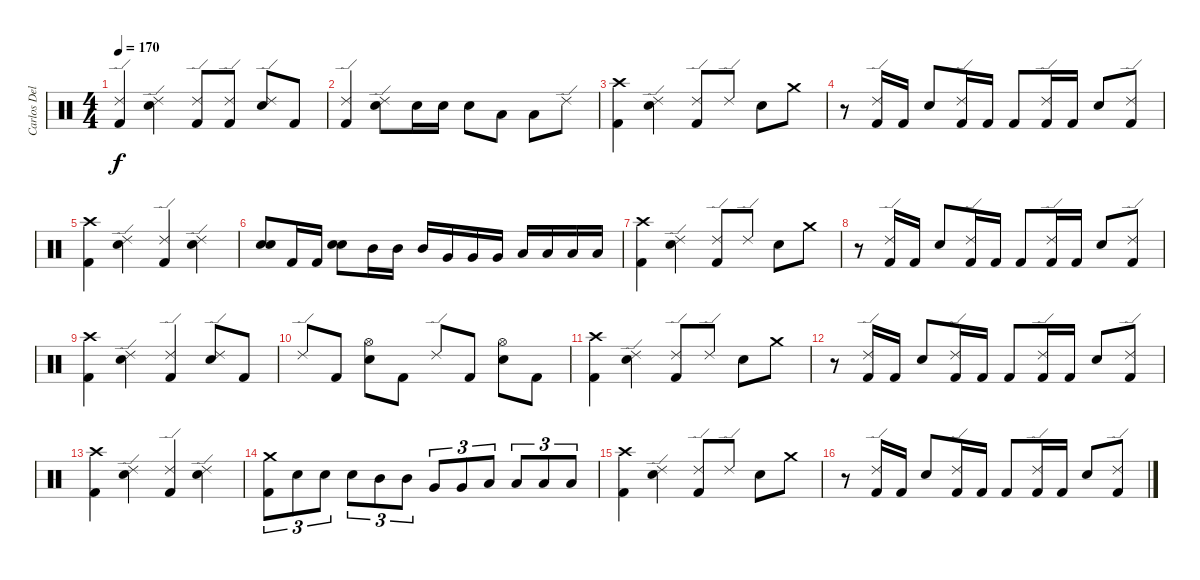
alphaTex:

\track ("Carlos Delgado" "Carlos Del") {instrument percussion}
\staff {score}
\articulation defaults
\ts (4 4)
\tempo 170
\clef neutral
\ks c
("Ride (edge) 2" "Kick (hit) 2").4{dy f} ("Ride (edge) 2" "Electric Snare (hit)").4 ("Ride (edge) 2" "Kick (hit) 2").8 ("Ride (edge) 2" "Kick (hit) 2").8 ("Ride (edge) 2" "Electric Snare (hit)").8 "Kick (hit) 2".8 |
("Ride (edge) 2" "Kick (hit) 2").4 ("Ride (edge) 2" "Electric Snare (hit)").8 "Electric Snare (hit)".16 "Electric Snare (hit)".16 "Electric Snare (hit)".8 "Low Tom (hit)".8 "Low Tom (hit)".8 "Ride (edge) 2".8 |
("Crash high (hit)" "Kick (hit) 2").4 ("Ride (edge) 2" "Electric Snare (hit)").4 ("Ride (edge) 2" "Kick (hit) 2").8 "Ride (edge) 2".8 "Electric Snare (hit)".8 "Crash medium (hit)".8 |
r.8 ("Ride (edge) 2" "Kick (hit) 2").16 "Kick (hit) 2".16 "Electric Snare (hit)".8 ("Ride (edge) 2" "Kick (hit) 2").16 "Kick (hit) 2".16 "Kick (hit) 2".8 ("Ride (edge) 2" "Kick (hit) 2").16 "Kick (hit) 2".16 "Electric Snare (hit)".8 ("Ride (edge) 2" "Kick (hit) 2").8 |
("Crash high (hit)" "Kick (hit) 2").4 ("Ride (edge) 2" "Electric Snare (hit)").4 ("Ride (edge) 2" "Kick (hit) 2").4 ("Ride (edge) 2" "Electric Snare (hit)").4 |
("Electric Snare (hit)" "Electric Snare (hit)").8{bd 240} "Kick (hit) 2".16 "Kick (hit) 2".16 ("Electric Snare (hit)" "Electric Snare (hit)").8{bd 240} "Mid Tom (hit)".16 "Mid Tom (hit)".16 "Mid Tom (hit)".16 "Very Low Tom (hit)".16 "Very Low Tom (hit)".16 "Very Low Tom (hit)".16 "Low Tom (hit)".16 "Low Tom (hit)".16 "Low Tom (hit)".16 "Low Floor Tom (hit)".16 |
("Crash high (hit)" "Kick (hit) 2").4 ("Ride (edge) 2" "Electric Snare (hit)").4 ("Ride (edge) 2" "Kick (hit) 2").8 "Ride (edge) 2".8 "Electric Snare (hit)".8 "Crash medium (hit)".8 |
r.8 ("Ride (edge) 2" "Kick (hit) 2").16 "Kick (hit) 2".16 "Electric Snare (hit)".8 ("Ride (edge) 2" "Kick (hit) 2").16 "Kick (hit) 2".16 "Kick (hit) 2".8 ("Ride (edge) 2" "Kick (hit) 2").16 "Kick (hit) 2".16 "Electric Snare (hit)".8 ("Ride (edge) 2" "Kick (hit) 2").8 |
("Crash high (hit)" "Kick (hit) 2").4 ("Ride (edge) 2" "Electric Snare (hit)").4 ("Ride (edge) 2" "Kick (hit) 2").4 ("Ride (edge) 2" "Electric Snare (hit)").8 "Kick (hit) 2".8 |
"Ride (edge) 2".8 "Kick (hit) 2".8 ("Hi-Hat (open)" "Electric Snare (hit)").8 "Kick (hit) 2".8 "Ride (edge) 2".8 "Kick (hit) 2".8 ("Hi-Hat (open)" "Electric Snare (hit)").8 "Kick (hit) 2".8 |
("Crash high (hit)" "Kick (hit) 2").4 ("Ride (edge) 2" "Electric Snare (hit)").4 ("Ride (edge) 2" "Kick (hit) 2").8 "Ride (edge) 2".8 "Electric Snare (hit)".8 "Crash medium (hit)".8 |
r.8 ("Ride (edge) 2" "Kick (hit) 2").16 "Kick (hit) 2".16 "Electric Snare (hit)".8 ("Ride (edge) 2" "Kick (hit) 2").16 "Kick (hit) 2".16 "Kick (hit) 2".8 ("Ride (edge) 2" "Kick (hit) 2").16 "Kick (hit) 2".16 "Electric Snare (hit)".8 ("Ride (edge) 2" "Kick (hit) 2").8 |
("Crash high (hit)" "Kick (hit) 2").4 ("Ride (edge) 2" "Electric Snare (hit)").4 ("Ride (edge) 2" "Kick (hit) 2").4 ("Ride (edge) 2" "Electric Snare (hit)").4 |
("Crash medium (hit)" "Kick (hit) 2").8{tu (3 2)} "Electric Snare (hit)".8{tu (3 2)} "Electric Snare (hit)".8{tu (3 2)} "Electric Snare (hit)".8{tu (3 2)} "Mid Tom (hit)".8{tu (3 2)} "Mid Tom (hit)".8{tu (3 2)} "Very Low Tom (hit)".8{tu (3 2)} "Very Low Tom (hit)".8{tu (3 2)} "Low Tom (hit)".8{tu (3 2)} "Low Tom (hit)".8{tu (3 2)} "Low Floor Tom (hit)".8{tu (3 2)} "Low Floor Tom (hit)".8{tu (3 2)} |
("Crash high (hit)" "Kick (hit) 2").4 ("Ride (edge) 2" "Electric Snare (hit)").4 ("Ride (edge) 2" "Kick (hit) 2").8 "Ride (edge) 2".8 "Electric Snare (hit)".8 "Crash medium (hit)".8 |
r.8 ("Ride (edge) 2" "Kick (hit) 2").16 "Kick (hit) 2".16 "Electric Snare (hit)".8 ("Ride (edge) 2" "Kick (hit) 2").16 "Kick (hit) 2".16 "Kick (hit) 2".8 ("Ride (edge) 2" "Kick (hit) 2").16 "Kick (hit) 2".16 "Electric Snare (hit)".8 ("Ride (edge) 2" "Kick (hit) 2").8
